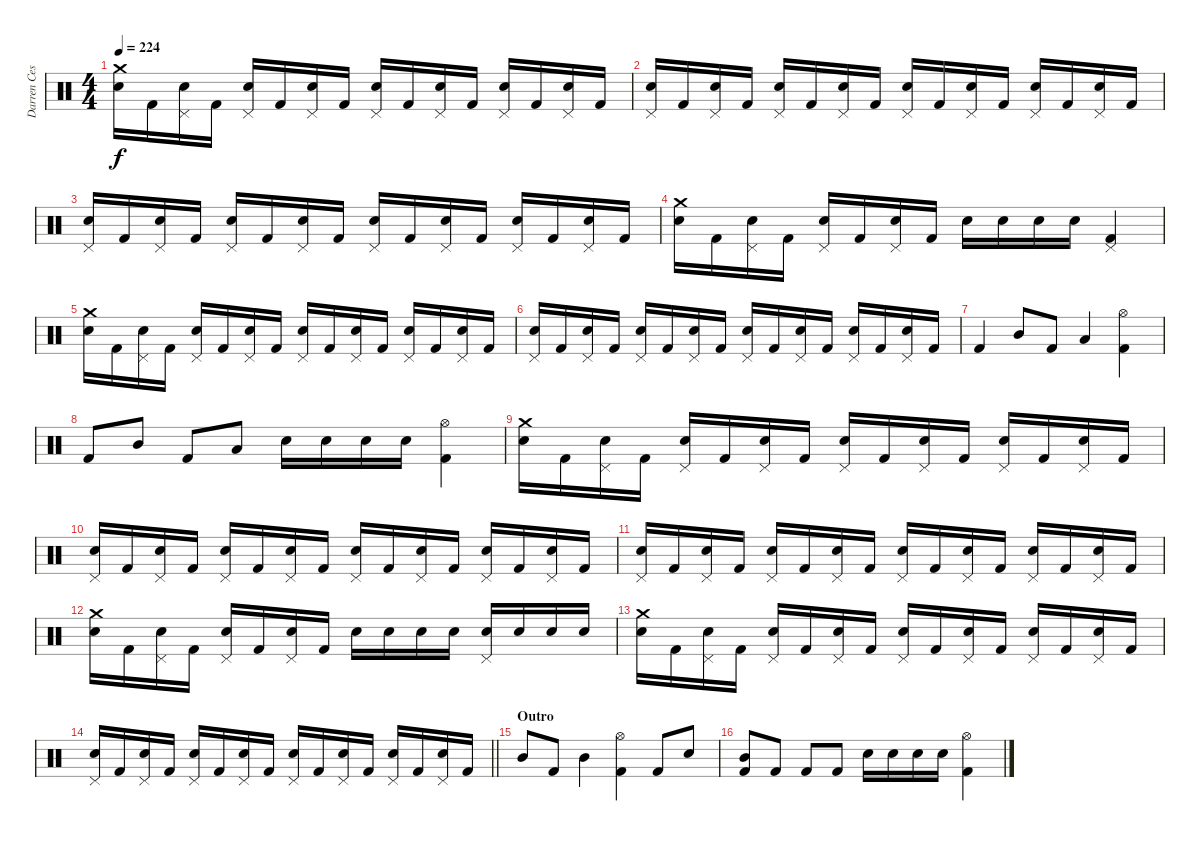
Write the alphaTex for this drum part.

\track ("Darren Cesca" "Darren Ces") {instrument percussion}
\staff {score}
\articulation defaults
\ts (4 4)
\tempo 224
\clef neutral
\ks c
("Crash medium (hit)" "Electric Snare (hit)").16{dy f} "Kick (hit) 2".16 ("Pedal Hi-Hat (hit)" "Electric Snare (hit)").16 "Kick (hit) 2".16 ("Pedal Hi-Hat (hit)" "Electric Snare (hit)").16 "Kick (hit) 2".16 ("Pedal Hi-Hat (hit)" "Electric Snare (hit)").16 "Kick (hit) 2".16 ("Pedal Hi-Hat (hit)" "Electric Snare (hit)").16 "Kick (hit) 2".16 ("Pedal Hi-Hat (hit)" "Electric Snare (hit)").16 "Kick (hit) 2".16 ("Pedal Hi-Hat (hit)" "Electric Snare (hit)").16 "Kick (hit) 2".16 ("Pedal Hi-Hat (hit)" "Electric Snare (hit)").16 "Kick (hit) 2".16 |
("Pedal Hi-Hat (hit)" "Electric Snare (hit)").16 "Kick (hit) 2".16 ("Pedal Hi-Hat (hit)" "Electric Snare (hit)").16 "Kick (hit) 2".16 ("Pedal Hi-Hat (hit)" "Electric Snare (hit)").16 "Kick (hit) 2".16 ("Pedal Hi-Hat (hit)" "Electric Snare (hit)").16 "Kick (hit) 2".16 ("Pedal Hi-Hat (hit)" "Electric Snare (hit)").16 "Kick (hit) 2".16 ("Pedal Hi-Hat (hit)" "Electric Snare (hit)").16 "Kick (hit) 2".16 ("Pedal Hi-Hat (hit)" "Electric Snare (hit)").16 "Kick (hit) 2".16 ("Pedal Hi-Hat (hit)" "Electric Snare (hit)").16 "Kick (hit) 2".16 |
("Pedal Hi-Hat (hit)" "Electric Snare (hit)").16 "Kick (hit) 2".16 ("Pedal Hi-Hat (hit)" "Electric Snare (hit)").16 "Kick (hit) 2".16 ("Pedal Hi-Hat (hit)" "Electric Snare (hit)").16 "Kick (hit) 2".16 ("Pedal Hi-Hat (hit)" "Electric Snare (hit)").16 "Kick (hit) 2".16 ("Pedal Hi-Hat (hit)" "Electric Snare (hit)").16 "Kick (hit) 2".16 ("Pedal Hi-Hat (hit)" "Electric Snare (hit)").16 "Kick (hit) 2".16 ("Pedal Hi-Hat (hit)" "Electric Snare (hit)").16 "Kick (hit) 2".16 ("Pedal Hi-Hat (hit)" "Electric Snare (hit)").16 "Kick (hit) 2".16 |
("Crash medium (hit)" "Electric Snare (hit)").16 "Kick (hit) 2".16 ("Pedal Hi-Hat (hit)" "Electric Snare (hit)").16 "Kick (hit) 2".16 ("Pedal Hi-Hat (hit)" "Electric Snare (hit)").16 "Kick (hit) 2".16 ("Pedal Hi-Hat (hit)" "Electric Snare (hit)").16 "Kick (hit) 2".16 "Electric Snare (hit)".16 "Electric Snare (hit)".16 "Electric Snare (hit)".16 "Electric Snare (hit)".16 ("Pedal Hi-Hat (hit)" "Kick (hit) 2").4 |
("Crash medium (hit)" "Electric Snare (hit)").16 "Kick (hit) 2".16 ("Pedal Hi-Hat (hit)" "Electric Snare (hit)").16 "Kick (hit) 2".16 ("Pedal Hi-Hat (hit)" "Electric Snare (hit)").16 "Kick (hit) 2".16 ("Pedal Hi-Hat (hit)" "Electric Snare (hit)").16 "Kick (hit) 2".16 ("Pedal Hi-Hat (hit)" "Electric Snare (hit)").16 "Kick (hit) 2".16 ("Pedal Hi-Hat (hit)" "Electric Snare (hit)").16 "Kick (hit) 2".16 ("Pedal Hi-Hat (hit)" "Electric Snare (hit)").16 "Kick (hit) 2".16 ("Pedal Hi-Hat (hit)" "Electric Snare (hit)").16 "Kick (hit) 2".16 |
("Pedal Hi-Hat (hit)" "Electric Snare (hit)").16 "Kick (hit) 2".16 ("Pedal Hi-Hat (hit)" "Electric Snare (hit)").16 "Kick (hit) 2".16 ("Pedal Hi-Hat (hit)" "Electric Snare (hit)").16 "Kick (hit) 2".16 ("Pedal Hi-Hat (hit)" "Electric Snare (hit)").16 "Kick (hit) 2".16 ("Pedal Hi-Hat (hit)" "Electric Snare (hit)").16 "Kick (hit) 2".16 ("Pedal Hi-Hat (hit)" "Electric Snare (hit)").16 "Kick (hit) 2".16 ("Pedal Hi-Hat (hit)" "Electric Snare (hit)").16 "Kick (hit) 2".16 ("Pedal Hi-Hat (hit)" "Electric Snare (hit)").16 "Kick (hit) 2".16 |
"Kick (hit) 2".4 "Mid Tom (hit)".8 "Kick (hit) 2".8 "Low Tom (hit)".4 ("Hi-Hat (open)" "Kick (hit) 2").4 |
"Kick (hit) 2".8 "Mid Tom (hit)".8 "Kick (hit) 2".8 "Low Tom (hit)".8 "Electric Snare (hit)".16 "Electric Snare (hit)".16 "Electric Snare (hit)".16 "Electric Snare (hit)".16 ("Hi-Hat (open)" "Kick (hit) 2").4 |
("Crash medium (hit)" "Electric Snare (hit)").16 "Kick (hit) 2".16 ("Pedal Hi-Hat (hit)" "Electric Snare (hit)").16 "Kick (hit) 2".16 ("Pedal Hi-Hat (hit)" "Electric Snare (hit)").16 "Kick (hit) 2".16 ("Pedal Hi-Hat (hit)" "Electric Snare (hit)").16 "Kick (hit) 2".16 ("Pedal Hi-Hat (hit)" "Electric Snare (hit)").16 "Kick (hit) 2".16 ("Pedal Hi-Hat (hit)" "Electric Snare (hit)").16 "Kick (hit) 2".16 ("Pedal Hi-Hat (hit)" "Electric Snare (hit)").16 "Kick (hit) 2".16 ("Pedal Hi-Hat (hit)" "Electric Snare (hit)").16 "Kick (hit) 2".16 |
("Pedal Hi-Hat (hit)" "Electric Snare (hit)").16 "Kick (hit) 2".16 ("Pedal Hi-Hat (hit)" "Electric Snare (hit)").16 "Kick (hit) 2".16 ("Pedal Hi-Hat (hit)" "Electric Snare (hit)").16 "Kick (hit) 2".16 ("Pedal Hi-Hat (hit)" "Electric Snare (hit)").16 "Kick (hit) 2".16 ("Pedal Hi-Hat (hit)" "Electric Snare (hit)").16 "Kick (hit) 2".16 ("Pedal Hi-Hat (hit)" "Electric Snare (hit)").16 "Kick (hit) 2".16 ("Pedal Hi-Hat (hit)" "Electric Snare (hit)").16 "Kick (hit) 2".16 ("Pedal Hi-Hat (hit)" "Electric Snare (hit)").16 "Kick (hit) 2".16 |
("Pedal Hi-Hat (hit)" "Electric Snare (hit)").16 "Kick (hit) 2".16 ("Pedal Hi-Hat (hit)" "Electric Snare (hit)").16 "Kick (hit) 2".16 ("Pedal Hi-Hat (hit)" "Electric Snare (hit)").16 "Kick (hit) 2".16 ("Pedal Hi-Hat (hit)" "Electric Snare (hit)").16 "Kick (hit) 2".16 ("Pedal Hi-Hat (hit)" "Electric Snare (hit)").16 "Kick (hit) 2".16 ("Pedal Hi-Hat (hit)" "Electric Snare (hit)").16 "Kick (hit) 2".16 ("Pedal Hi-Hat (hit)" "Electric Snare (hit)").16 "Kick (hit) 2".16 ("Pedal Hi-Hat (hit)" "Electric Snare (hit)").16 "Kick (hit) 2".16 |
("Crash medium (hit)" "Electric Snare (hit)").16 "Kick (hit) 2".16 ("Pedal Hi-Hat (hit)" "Electric Snare (hit)").16 "Kick (hit) 2".16 ("Pedal Hi-Hat (hit)" "Electric Snare (hit)").16 "Kick (hit) 2".16 ("Pedal Hi-Hat (hit)" "Electric Snare (hit)").16 "Kick (hit) 2".16 "Electric Snare (hit)".16 "Electric Snare (hit)".16 "Electric Snare (hit)".16 "Electric Snare (hit)".16 ("Pedal Hi-Hat (hit)" "Electric Snare (hit)").16 "Electric Snare (hit)".16 "Electric Snare (hit)".16 "Electric Snare (hit)".16 |
("Crash medium (hit)" "Electric Snare (hit)").16 "Kick (hit) 2".16 ("Pedal Hi-Hat (hit)" "Electric Snare (hit)").16 "Kick (hit) 2".16 ("Pedal Hi-Hat (hit)" "Electric Snare (hit)").16 "Kick (hit) 2".16 ("Pedal Hi-Hat (hit)" "Electric Snare (hit)").16 "Kick (hit) 2".16 ("Pedal Hi-Hat (hit)" "Electric Snare (hit)").16 "Kick (hit) 2".16 ("Pedal Hi-Hat (hit)" "Electric Snare (hit)").16 "Kick (hit) 2".16 ("Pedal Hi-Hat (hit)" "Electric Snare (hit)").16 "Kick (hit) 2".16 ("Pedal Hi-Hat (hit)" "Electric Snare (hit)").16 "Kick (hit) 2".16 |
\barLineRight lightlight
("Pedal Hi-Hat (hit)" "Electric Snare (hit)").16 "Kick (hit) 2".16 ("Pedal Hi-Hat (hit)" "Electric Snare (hit)").16 "Kick (hit) 2".16 ("Pedal Hi-Hat (hit)" "Electric Snare (hit)").16 "Kick (hit) 2".16 ("Pedal Hi-Hat (hit)" "Electric Snare (hit)").16 "Kick (hit) 2".16 ("Pedal Hi-Hat (hit)" "Electric Snare (hit)").16 "Kick (hit) 2".16 ("Pedal Hi-Hat (hit)" "Electric Snare (hit)").16 "Kick (hit) 2".16 ("Pedal Hi-Hat (hit)" "Electric Snare (hit)").16 "Kick (hit) 2".16 ("Pedal Hi-Hat (hit)" "Electric Snare (hit)").16 "Kick (hit) 2".16 |
\section ("" "Outro")
"Mid Tom (hit)".8 "Kick (hit) 2".8 "Mid Tom (hit)".4 ("Hi-Hat (open)" "Kick (hit) 2").4 "Kick (hit) 2".8 "Electric Snare (hit)".8 |
("Mid Tom (hit)" "Kick (hit) 2").8 "Kick (hit) 2".8 "Kick (hit) 2".8 "Kick (hit) 2".8 "Electric Snare (hit)".16 "Electric Snare (hit)".16 "Electric Snare (hit)".16 "Electric Snare (hit)".16 ("Hi-Hat (open)" "Kick (hit) 2").4
